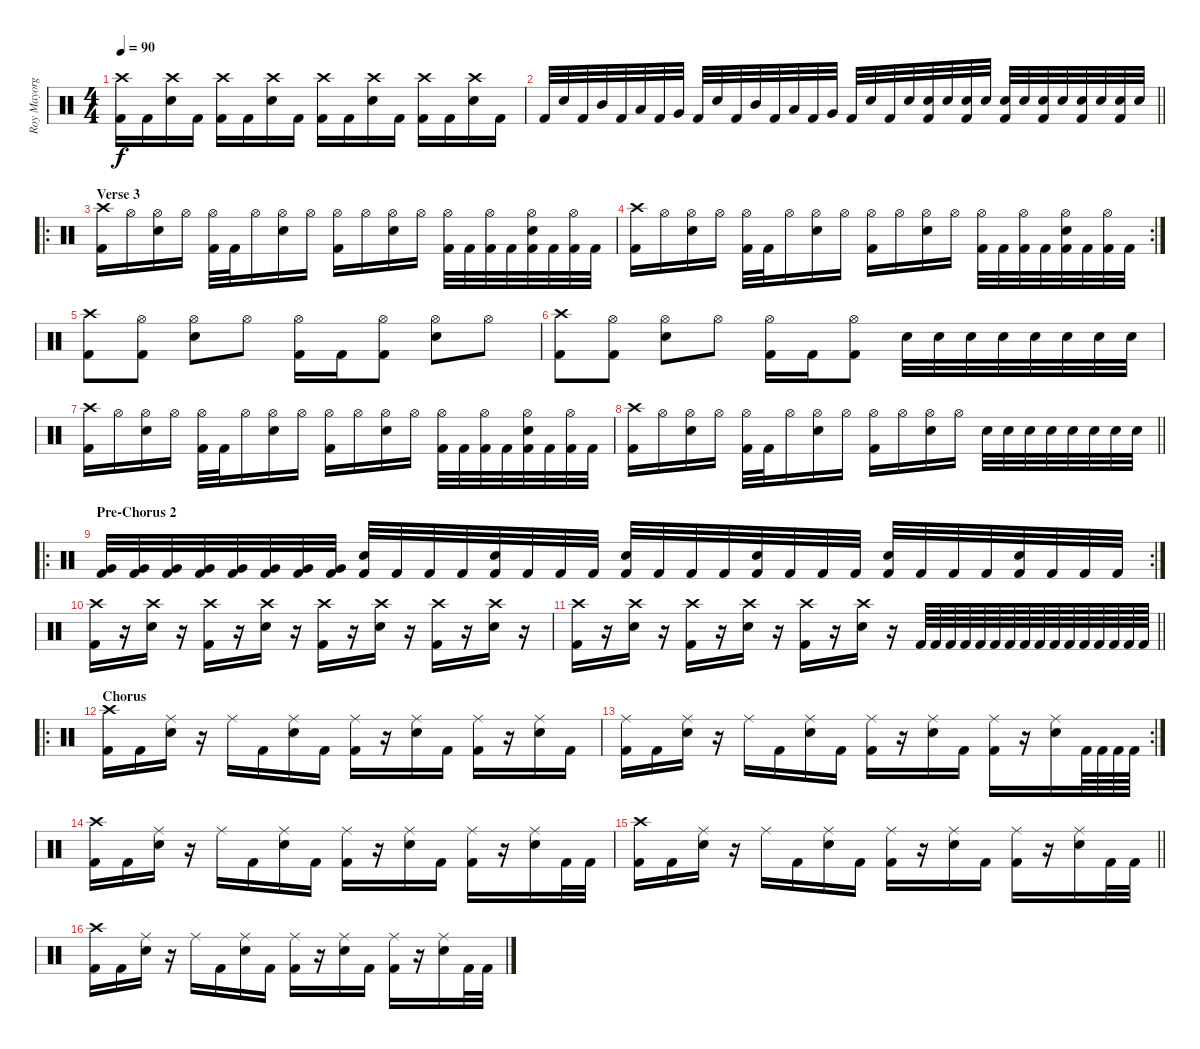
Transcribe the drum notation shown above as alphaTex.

\track ("Roy Mayorga" "Roy Mayorg") {instrument percussion}
\staff {score}
\articulation defaults
\ts (4 4)
\tempo 90
\clef neutral
\ks c
("Kick (hit) 2" "Crash high (hit)").16{dy f} "Kick (hit) 2".16 ("Electric Snare (hit)" "Crash high (hit)").16 "Kick (hit) 2".16 ("Kick (hit) 2" "Crash high (hit)").16 "Kick (hit) 2".16 ("Electric Snare (hit)" "Crash high (hit)").16 "Kick (hit) 2".16 ("Kick (hit) 2" "Crash high (hit)").16 "Kick (hit) 2".16 ("Electric Snare (hit)" "Crash high (hit)").16 "Kick (hit) 2".16 ("Kick (hit) 2" "Crash high (hit)").16 "Kick (hit) 2".16 ("Electric Snare (hit)" "Crash high (hit)").16 "Kick (hit) 2".16 |
\barLineRight lightlight "Kick (hit) 2".32 "Electric Snare (hit)".32 "Kick (hit) 2".32 "Mid Tom (hit)".32 "Kick (hit) 2".32 "Low Tom (hit)".32 "Kick (hit) 2".32 "Very Low Tom (hit)".32 "Kick (hit) 2".32 "Electric Snare (hit)".32 "Kick (hit) 2".32 "Mid Tom (hit)".32 "Kick (hit) 2".32 "Low Tom (hit)".32 "Kick (hit) 2".32 "Very Low Tom (hit)".32 "Kick (hit) 2".32 "Electric Snare (hit)".32 "Kick (hit) 2".32 "Electric Snare (hit)".32
("Kick (hit) 2" "Electric Snare (hit)").32 "Electric Snare (hit)".32 ("Kick (hit) 2" "Electric Snare (hit)").32 "Electric Snare (hit)".32 ("Kick (hit) 2" "Electric Snare (hit)").32 "Electric Snare (hit)".32 ("Kick (hit) 2" "Electric Snare (hit)").32 "Electric Snare (hit)".32 ("Kick (hit) 2" "Electric Snare (hit)").32 "Electric Snare (hit)".32 ("Kick (hit) 2" "Electric Snare (hit)").32 "Electric Snare (hit)".32 |
\ro
\section ("" "Verse 3")
("Kick (hit) 2" "Crash high (hit)").16 "Hi-Hat (open)".16 ("Electric Snare (hit)" "Hi-Hat (open)").16 "Hi-Hat (open)".16 ("Kick (hit) 2" "Hi-Hat (open)").32 "Kick (hit) 2".32 "Hi-Hat (open)".16 ("Electric Snare (hit)" "Hi-Hat (open)").16 "Hi-Hat (open)".16 ("Kick (hit) 2" "Hi-Hat (open)").16 "Hi-Hat (open)".16 ("Electric Snare (hit)" "Hi-Hat (open)").16 "Hi-Hat (open)".16 ("Kick (hit) 2" "Hi-Hat (open)").32 "Kick (hit) 2".32 ("Kick (hit) 2" "Hi-Hat (open)").32 "Kick (hit) 2".32 ("Kick (hit) 2" "Electric Snare (hit)" "Hi-Hat (open)").32 "Kick (hit) 2".32 ("Kick (hit) 2" "Hi-Hat (open)").32 "Kick (hit) 2".32 |
\rc 2
("Kick (hit) 2" "Crash high (hit)").16 "Hi-Hat (open)".16 ("Electric Snare (hit)" "Hi-Hat (open)").16 "Hi-Hat (open)".16 ("Kick (hit) 2" "Hi-Hat (open)").32 "Kick (hit) 2".32 "Hi-Hat (open)".16 ("Electric Snare (hit)" "Hi-Hat (open)").16 "Hi-Hat (open)".16 ("Kick (hit) 2" "Hi-Hat (open)").16 "Hi-Hat (open)".16 ("Electric Snare (hit)" "Hi-Hat (open)").16 "Hi-Hat (open)".16 ("Kick (hit) 2" "Hi-Hat (open)").32 "Kick (hit) 2".32 ("Kick (hit) 2" "Hi-Hat (open)").32 "Kick (hit) 2".32 ("Kick (hit) 2" "Electric Snare (hit)" "Hi-Hat (open)").32 "Kick (hit) 2".32 ("Kick (hit) 2" "Hi-Hat (open)").32 "Kick (hit) 2".32 |
("Kick (hit) 2" "Crash high (hit)").8 ("Kick (hit) 2" "Hi-Hat (open)").8 ("Electric Snare (hit)" "Hi-Hat (open)").8 "Hi-Hat (open)".8 ("Kick (hit) 2" "Hi-Hat (open)").16 "Kick (hit) 2".16 ("Kick (hit) 2" "Hi-Hat (open)").8 ("Electric Snare (hit)" "Hi-Hat (open)").8 "Hi-Hat (open)".8 |
("Kick (hit) 2" "Crash high (hit)").8 ("Kick (hit) 2" "Hi-Hat (open)").8 ("Electric Snare (hit)" "Hi-Hat (open)").8 "Hi-Hat (open)".8 ("Kick (hit) 2" "Hi-Hat (open)").16 "Kick (hit) 2".16 ("Kick (hit) 2" "Hi-Hat (open)").8 "Electric Snare (hit)".32 "Electric Snare (hit)".32 "Electric Snare (hit)".32 "Electric Snare (hit)".32 "Electric Snare (hit)".32 "Electric Snare (hit)".32 "Electric Snare (hit)".32 "Electric Snare (hit)".32 |
("Kick (hit) 2" "Crash high (hit)").16 "Hi-Hat (open)".16 ("Electric Snare (hit)" "Hi-Hat (open)").16 "Hi-Hat (open)".16 ("Kick (hit) 2" "Hi-Hat (open)").32 "Kick (hit) 2".32 "Hi-Hat (open)".16 ("Electric Snare (hit)" "Hi-Hat (open)").16 "Hi-Hat (open)".16 ("Kick (hit) 2" "Hi-Hat (open)").16 "Hi-Hat (open)".16 ("Electric Snare (hit)" "Hi-Hat (open)").16 "Hi-Hat (open)".16 ("Kick (hit) 2" "Hi-Hat (open)").32 "Kick (hit) 2".32 ("Kick (hit) 2" "Hi-Hat (open)").32 "Kick (hit) 2".32 ("Kick (hit) 2" "Electric Snare (hit)" "Hi-Hat (open)").32 "Kick (hit) 2".32 ("Kick (hit) 2" "Hi-Hat (open)").32 "Kick (hit) 2".32 |
\barLineRight lightlight
("Kick (hit) 2" "Crash high (hit)").16 "Hi-Hat (open)".16 ("Electric Snare (hit)" "Hi-Hat (open)").16 "Hi-Hat (open)".16 ("Kick (hit) 2" "Hi-Hat (open)").32 "Kick (hit) 2".32 "Hi-Hat (open)".16 ("Electric Snare (hit)" "Hi-Hat (open)").16 "Hi-Hat (open)".16 ("Kick (hit) 2" "Hi-Hat (open)").16 "Hi-Hat (open)".16 ("Electric Snare (hit)" "Hi-Hat (open)").16 "Hi-Hat (open)".16 "Electric Snare (hit)".32 "Electric Snare (hit)".32 "Electric Snare (hit)".32 "Electric Snare (hit)".32 "Electric Snare (hit)".32 "Electric Snare (hit)".32 "Electric Snare (hit)".32 "Electric Snare (hit)".32 |
\ro
\rc 2
\section ("" "Pre-Chorus 2")
("Kick (hit) 2" "Very Low Tom (hit)").32 ("Kick (hit) 2" "Very Low Tom (hit)").32 ("Kick (hit) 2" "Very Low Tom (hit)").32 ("Kick (hit) 2" "Very Low Tom (hit)").32 ("Kick (hit) 2" "Very Low Tom (hit)").32 ("Kick (hit) 2" "Very Low Tom (hit)").32 ("Kick (hit) 2" "Very Low Tom (hit)").32 ("Kick (hit) 2" "Very Low Tom (hit)").32 ("Kick (hit) 2" "Electric Snare (hit)").32 "Kick (hit) 2".32 "Kick (hit) 2".32 "Kick (hit) 2".32 ("Kick (hit) 2" "Electric Snare (hit)").32 "Kick (hit) 2".32 "Kick (hit) 2".32 "Kick (hit) 2".32 ("Kick (hit) 2" "Electric Snare (hit)").32 "Kick (hit) 2".32 "Kick (hit) 2".32 "Kick (hit) 2".32 ("Kick (hit) 2" "Electric Snare (hit)").32 "Kick (hit) 2".32 "Kick (hit) 2".32 "Kick (hit) 2".32 ("Kick (hit) 2" "Electric Snare (hit)").32 "Kick (hit) 2".32 "Kick (hit) 2".32 "Kick (hit) 2".32 ("Kick (hit) 2" "Electric Snare (hit)").32 "Kick (hit) 2".32 "Kick (hit) 2".32 "Kick (hit) 2".32 |
("Kick (hit) 2" "Crash high (hit)").16 r.16 ("Electric Snare (hit)" "Crash high (hit)").16 r.16 ("Kick (hit) 2" "Crash high (hit)").16 r.16 ("Electric Snare (hit)" "Crash high (hit)").16 r.16 ("Kick (hit) 2" "Crash high (hit)").16 r.16 ("Electric Snare (hit)" "Crash high (hit)").16 r.16 ("Kick (hit) 2" "Crash high (hit)").16 r.16 ("Electric Snare (hit)" "Crash high (hit)").16 r.16 |
\barLineRight lightlight
("Kick (hit) 2" "Crash high (hit)").16 r.16 ("Electric Snare (hit)" "Crash high (hit)").16 r.16 ("Kick (hit) 2" "Crash high (hit)").16 r.16 ("Electric Snare (hit)" "Crash high (hit)").16 r.16 ("Kick (hit) 2" "Crash high (hit)").16 r.16 ("Electric Snare (hit)" "Crash high (hit)").16 r.16 "Kick (hit) 2".64 "Kick (hit) 2".64 "Kick (hit) 2".64 "Kick (hit) 2".64 "Kick (hit) 2".64 "Kick (hit) 2".64 "Kick (hit) 2".64 "Kick (hit) 2".64 "Kick (hit) 2".64 "Kick (hit) 2".64 "Kick (hit) 2".64 "Kick (hit) 2".64 "Kick (hit) 2".64 "Kick (hit) 2".64 "Kick (hit) 2".64 "Kick (hit) 2".64 |
\ro
\section ("" "Chorus")
("Kick (hit) 2" "Crash high (hit)").16 "Kick (hit) 2".16 ("Electric Snare (hit)" "Ride (middle)").16 r.16 "Ride (middle)".16 "Kick (hit) 2".16 ("Electric Snare (hit)" "Ride (middle)").16 "Kick (hit) 2".16 ("Kick (hit) 2" "Ride (middle)").16 r.16 ("Electric Snare (hit)" "Ride (middle)").16 "Kick (hit) 2".16 ("Kick (hit) 2" "Ride (middle)").16 r.16 ("Electric Snare (hit)" "Ride (middle)").16 "Kick (hit) 2".16 |
\rc 2
("Kick (hit) 2" "Ride (middle)").16 "Kick (hit) 2".16 ("Electric Snare (hit)" "Ride (middle)").16 r.16 "Ride (middle)".16 "Kick (hit) 2".16 ("Electric Snare (hit)" "Ride (middle)").16 "Kick (hit) 2".16 ("Kick (hit) 2" "Ride (middle)").16 r.16 ("Electric Snare (hit)" "Ride (middle)").16 "Kick (hit) 2".16 ("Kick (hit) 2" "Ride (middle)").16 r.16 ("Electric Snare (hit)" "Ride (middle)").16 "Kick (hit) 2".64 "Kick (hit) 2".64 "Kick (hit) 2".64 "Kick (hit) 2".64 |
("Kick (hit) 2" "Crash high (hit)").16 "Kick (hit) 2".16 ("Electric Snare (hit)" "Ride (middle)").16 r.16 "Ride (middle)".16 "Kick (hit) 2".16 ("Electric Snare (hit)" "Ride (middle)").16 "Kick (hit) 2".16 ("Kick (hit) 2" "Ride (middle)").16 r.16 ("Electric Snare (hit)" "Ride (middle)").16 "Kick (hit) 2".16 ("Kick (hit) 2" "Ride (middle)").16 r.16 ("Electric Snare (hit)" "Ride (middle)").16 "Kick (hit) 2".32 "Kick (hit) 2".32 |
\barLineRight lightlight
("Kick (hit) 2" "Crash high (hit)").16 "Kick (hit) 2".16 ("Electric Snare (hit)" "Ride (middle)").16 r.16 "Ride (middle)".16 "Kick (hit) 2".16 ("Electric Snare (hit)" "Ride (middle)").16 "Kick (hit) 2".16 ("Kick (hit) 2" "Ride (middle)").16 r.16 ("Electric Snare (hit)" "Ride (middle)").16 "Kick (hit) 2".16 ("Kick (hit) 2" "Ride (middle)").16 r.16 ("Electric Snare (hit)" "Ride (middle)").16 "Kick (hit) 2".32 "Kick (hit) 2".32 |
("Kick (hit) 2" "Crash high (hit)").16 "Kick (hit) 2".16 ("Electric Snare (hit)" "Ride (middle)").16 r.16 "Ride (middle)".16 "Kick (hit) 2".16 ("Electric Snare (hit)" "Ride (middle)").16 "Kick (hit) 2".16 ("Kick (hit) 2" "Ride (middle)").16 r.16 ("Electric Snare (hit)" "Ride (middle)").16 "Kick (hit) 2".16 ("Kick (hit) 2" "Ride (middle)").16 r.16 ("Electric Snare (hit)" "Ride (middle)").16 "Kick (hit) 2".32 "Kick (hit) 2".32
